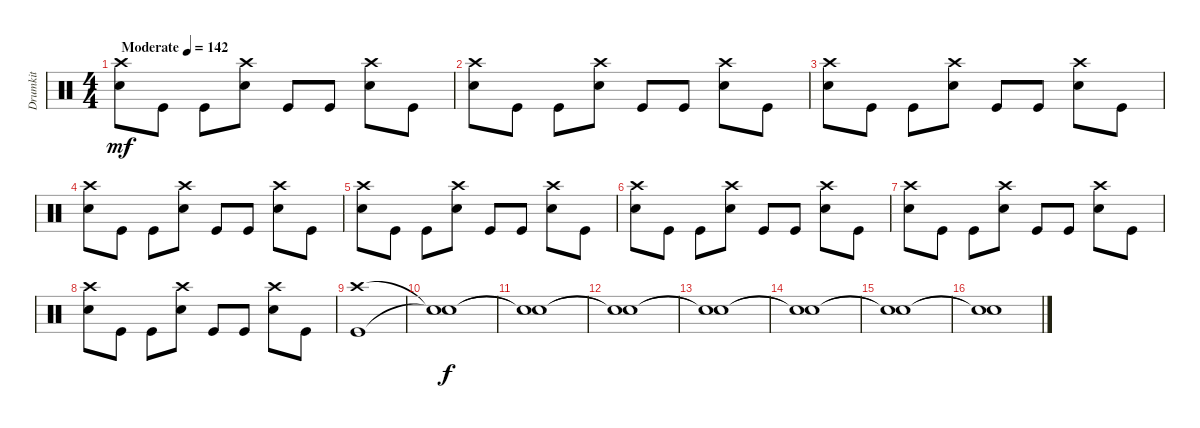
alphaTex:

\track ("Drumkit" "Drumkit") {instrument percussion}
\staff {score}
\articulation defaults
\ts (4 4)
\tempo (142 "Moderate")
\clef neutral
\ks c
("Snare (hit) 2" "Crash high (hit)").8{dy mf} "Kick (hit)".8 "Kick (hit)".8 ("Snare (hit) 2" "Crash high (hit)").8 "Kick (hit)".8 "Kick (hit)".8 ("Snare (hit) 2" "Crash high (hit)").8 "Kick (hit)".8 |
("Snare (hit) 2" "Crash high (hit)").8 "Kick (hit)".8 "Kick (hit)".8 ("Snare (hit) 2" "Crash high (hit)").8 "Kick (hit)".8 "Kick (hit)".8 ("Snare (hit) 2" "Crash high (hit)").8 "Kick (hit)".8 |
("Snare (hit) 2" "Crash high (hit)").8 "Kick (hit)".8 "Kick (hit)".8 ("Snare (hit) 2" "Crash high (hit)").8 "Kick (hit)".8 "Kick (hit)".8 ("Snare (hit) 2" "Crash high (hit)").8 "Kick (hit)".8 |
("Snare (hit) 2" "Crash high (hit)").8 "Kick (hit)".8 "Kick (hit)".8 ("Snare (hit) 2" "Crash high (hit)").8 "Kick (hit)".8 "Kick (hit)".8 ("Snare (hit) 2" "Crash high (hit)").8 "Kick (hit)".8 |
("Snare (hit) 2" "Crash high (hit)").8 "Kick (hit)".8 "Kick (hit)".8 ("Snare (hit) 2" "Crash high (hit)").8 "Kick (hit)".8 "Kick (hit)".8 ("Snare (hit) 2" "Crash high (hit)").8 "Kick (hit)".8 |
("Snare (hit) 2" "Crash high (hit)").8 "Kick (hit)".8 "Kick (hit)".8 ("Snare (hit) 2" "Crash high (hit)").8 "Kick (hit)".8 "Kick (hit)".8 ("Snare (hit) 2" "Crash high (hit)").8 "Kick (hit)".8 |
("Snare (hit) 2" "Crash high (hit)").8 "Kick (hit)".8 "Kick (hit)".8 ("Snare (hit) 2" "Crash high (hit)").8 "Kick (hit)".8 "Kick (hit)".8 ("Snare (hit) 2" "Crash high (hit)").8 "Kick (hit)".8 |
("Snare (hit) 2" "Crash high (hit)").8 "Kick (hit)".8 "Kick (hit)".8 ("Snare (hit) 2" "Crash high (hit)").8 "Kick (hit)".8 "Kick (hit)".8 ("Snare (hit) 2" "Crash high (hit)").8 "Kick (hit)".8 |
("Crash high (hit)" "Kick (hit)").1 |
("Snare (hit)"{t} "Snare (hit)"{t}).1{dy f} |
("Snare (hit)"{t} "Snare (hit)"{t}).1 |
("Snare (hit)"{t} "Snare (hit)"{t}).1 |
("Snare (hit)"{t} "Snare (hit)"{t}).1 |
("Snare (hit)"{t} "Snare (hit)"{t}).1 |
("Snare (hit)"{t} "Snare (hit)"{t}).1 |
("Snare (hit)"{t} "Snare (hit)"{t}).1
